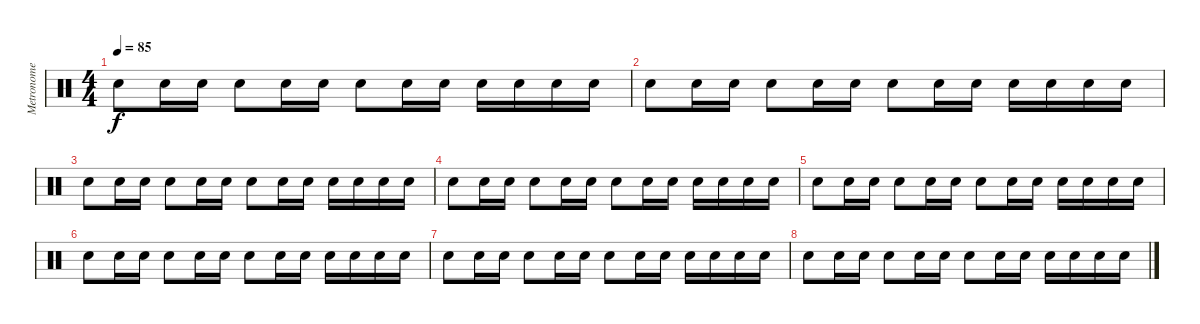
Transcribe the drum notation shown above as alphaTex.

\track ("Metronome Bell" "Metronome ") {instrument percussion}
\staff {score}
\articulation defaults
\ts (4 4)
\tempo 85
\clef neutral
\ks c "Metronome (bell)".8{dy f} "Metronome (bell)".16 "Metronome (bell)".16 "Metronome (bell)".8 "Metronome (bell)".16 "Metronome (bell)".16 "Metronome (bell)".8 "Metronome (bell)".16 "Metronome (bell)".16 "Metronome (bell)".16 "Metronome (bell)".16 "Metronome (bell)".16 "Metronome (bell)".16
|
"Metronome (bell)".8 "Metronome (bell)".16 "Metronome (bell)".16 "Metronome (bell)".8 "Metronome (bell)".16 "Metronome (bell)".16 "Metronome (bell)".8 "Metronome (bell)".16 "Metronome (bell)".16 "Metronome (bell)".16 "Metronome (bell)".16 "Metronome (bell)".16 "Metronome (bell)".16 |
"Metronome (bell)".8 "Metronome (bell)".16 "Metronome (bell)".16 "Metronome (bell)".8 "Metronome (bell)".16 "Metronome (bell)".16 "Metronome (bell)".8 "Metronome (bell)".16 "Metronome (bell)".16 "Metronome (bell)".16 "Metronome (bell)".16 "Metronome (bell)".16 "Metronome (bell)".16 |
"Metronome (bell)".8 "Metronome (bell)".16 "Metronome (bell)".16 "Metronome (bell)".8 "Metronome (bell)".16 "Metronome (bell)".16 "Metronome (bell)".8 "Metronome (bell)".16 "Metronome (bell)".16 "Metronome (bell)".16 "Metronome (bell)".16 "Metronome (bell)".16 "Metronome (bell)".16 |
"Metronome (bell)".8 "Metronome (bell)".16 "Metronome (bell)".16 "Metronome (bell)".8 "Metronome (bell)".16 "Metronome (bell)".16 "Metronome (bell)".8 "Metronome (bell)".16 "Metronome (bell)".16 "Metronome (bell)".16 "Metronome (bell)".16 "Metronome (bell)".16 "Metronome (bell)".16 |
"Metronome (bell)".8 "Metronome (bell)".16 "Metronome (bell)".16 "Metronome (bell)".8 "Metronome (bell)".16 "Metronome (bell)".16 "Metronome (bell)".8 "Metronome (bell)".16 "Metronome (bell)".16 "Metronome (bell)".16 "Metronome (bell)".16 "Metronome (bell)".16 "Metronome (bell)".16 |
"Metronome (bell)".8 "Metronome (bell)".16 "Metronome (bell)".16 "Metronome (bell)".8 "Metronome (bell)".16 "Metronome (bell)".16 "Metronome (bell)".8 "Metronome (bell)".16 "Metronome (bell)".16 "Metronome (bell)".16 "Metronome (bell)".16 "Metronome (bell)".16 "Metronome (bell)".16 |
"Metronome (bell)".8 "Metronome (bell)".16 "Metronome (bell)".16 "Metronome (bell)".8 "Metronome (bell)".16 "Metronome (bell)".16 "Metronome (bell)".8 "Metronome (bell)".16 "Metronome (bell)".16 "Metronome (bell)".16 "Metronome (bell)".16 "Metronome (bell)".16 "Metronome (bell)".16
